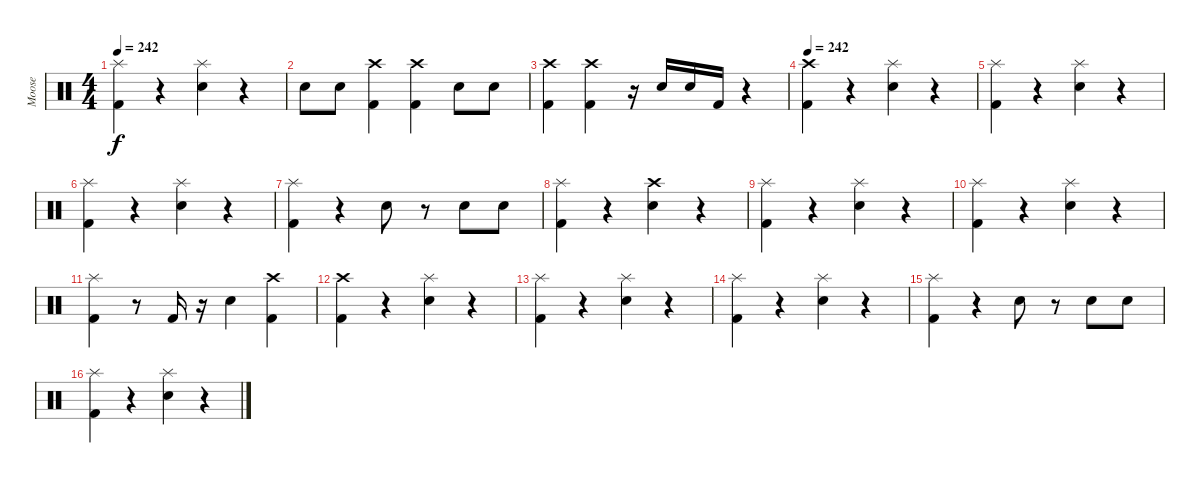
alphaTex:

\track ("Moose" "Moose") {instrument percussion}
\staff {score}
\articulation defaults
\ts (4 4)
\tempo 242
\clef neutral
\ks c
("Splash (hit)" "Kick (hit) 2").4{dy f} r.4 ("Splash (hit)" "Electric Snare (hit)").4 r.4 |
"Electric Snare (hit)".8 "Electric Snare (hit)".8 ("Crash high (hit)" "Kick (hit) 2").4 ("Crash high (hit)" "Kick (hit) 2").4 "Electric Snare (hit)".8 "Electric Snare (hit)".8 |
("Crash high (hit)" "Kick (hit) 2").4 ("Crash high (hit)" "Kick (hit) 2").4 r.16 "Electric Snare (hit)".16 "Electric Snare (hit)".16 "Kick (hit) 2".16 r.4 |
\tempo 242
("Crash high (hit)" "Kick (hit) 2").4 r.4 ("Splash (hit)" "Electric Snare (hit)").4 r.4 |
("Splash (hit)" "Kick (hit) 2").4 r.4 ("Splash (hit)" "Electric Snare (hit)").4 r.4 |
("Splash (hit)" "Kick (hit) 2").4 r.4 ("Splash (hit)" "Electric Snare (hit)").4 r.4 |
("Splash (hit)" "Kick (hit) 2").4 r.4 "Electric Snare (hit)".8 r.8 "Electric Snare (hit)".8 "Electric Snare (hit)".8 |
("Splash (hit)" "Kick (hit) 2").4 r.4 ("Crash high (hit)" "Electric Snare (hit)").4 r.4 |
("Splash (hit)" "Kick (hit) 2").4 r.4 ("Splash (hit)" "Electric Snare (hit)").4 r.4 |
("Splash (hit)" "Kick (hit) 2").4 r.4 ("Splash (hit)" "Electric Snare (hit)").4 r.4 |
("Splash (hit)" "Kick (hit) 2").4 r.8 "Kick (hit) 2".16 r.16 "Electric Snare (hit)".4 ("Crash high (hit)" "Kick (hit) 2").4 |
("Crash high (hit)" "Kick (hit) 2").4 r.4 ("Splash (hit)" "Electric Snare (hit)").4 r.4 |
("Splash (hit)" "Kick (hit) 2").4 r.4 ("Splash (hit)" "Electric Snare (hit)").4 r.4 |
("Splash (hit)" "Kick (hit) 2").4 r.4 ("Splash (hit)" "Electric Snare (hit)").4 r.4 |
("Splash (hit)" "Kick (hit) 2").4 r.4 "Electric Snare (hit)".8 r.8 "Electric Snare (hit)".8 "Electric Snare (hit)".8 |
("Splash (hit)" "Kick (hit) 2").4 r.4 ("Splash (hit)" "Electric Snare (hit)").4 r.4
